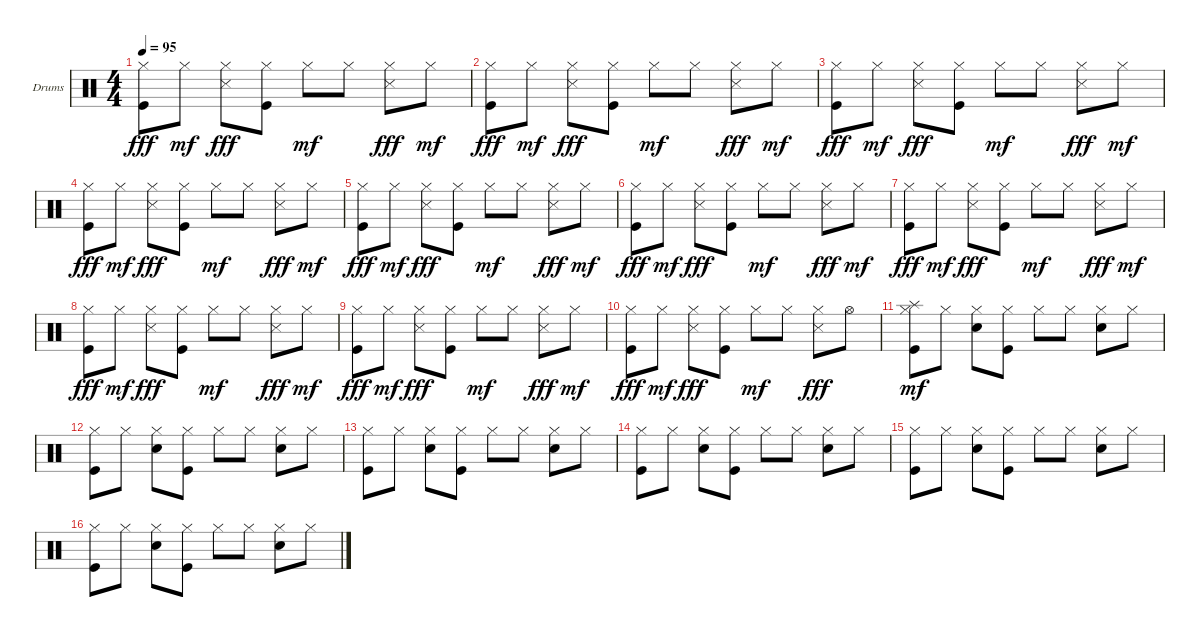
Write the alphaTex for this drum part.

\bracketExtendMode groupsimilarinstruments
\firstSystemTrackNameOrientation horizontal
\otherSystemsTrackNameOrientation horizontal
\track ("Drumkit" "Drums") {instrument percussion}
\staff {score}
\articulation defaults
\ts (4 4)
\tempo 95
\clef neutral
\ks c
("Kick (hit)" "Hi-Hat (closed)").8{dy fff} "Hi-Hat (closed)".8{dy mf} ("Snare (side stick) 3" "Hi-Hat (closed)").8{dy fff} ("Kick (hit)" "Hi-Hat (closed)").8 "Hi-Hat (closed)".8{dy mf} "Hi-Hat (closed)".8 ("Snare (side stick) 3" "Hi-Hat (closed)").8{dy fff} "Hi-Hat (closed)".8{dy mf} |
("Kick (hit)" "Hi-Hat (closed)").8{dy fff} "Hi-Hat (closed)".8{dy mf} ("Snare (side stick) 3" "Hi-Hat (closed)").8{dy fff} ("Kick (hit)" "Hi-Hat (closed)").8 "Hi-Hat (closed)".8{dy mf} "Hi-Hat (closed)".8 ("Snare (side stick) 3" "Hi-Hat (closed)").8{dy fff} "Hi-Hat (closed)".8{dy mf} |
("Kick (hit)" "Hi-Hat (closed)").8{dy fff} "Hi-Hat (closed)".8{dy mf} ("Snare (side stick) 3" "Hi-Hat (closed)").8{dy fff} ("Kick (hit)" "Hi-Hat (closed)").8 "Hi-Hat (closed)".8{dy mf} "Hi-Hat (closed)".8 ("Snare (side stick) 3" "Hi-Hat (closed)").8{dy fff} "Hi-Hat (closed)".8{dy mf} |
("Kick (hit)" "Hi-Hat (closed)").8{dy fff} "Hi-Hat (closed)".8{dy mf} ("Snare (side stick) 3" "Hi-Hat (closed)").8{dy fff} ("Kick (hit)" "Hi-Hat (closed)").8 "Hi-Hat (closed)".8{dy mf} "Hi-Hat (closed)".8 ("Snare (side stick) 3" "Hi-Hat (closed)").8{dy fff} "Hi-Hat (closed)".8{dy mf} |
("Kick (hit)" "Hi-Hat (closed)").8{dy fff} "Hi-Hat (closed)".8{dy mf} ("Snare (side stick) 3" "Hi-Hat (closed)").8{dy fff} ("Kick (hit)" "Hi-Hat (closed)").8 "Hi-Hat (closed)".8{dy mf} "Hi-Hat (closed)".8 ("Snare (side stick) 3" "Hi-Hat (closed)").8{dy fff} "Hi-Hat (closed)".8{dy mf} |
("Kick (hit)" "Hi-Hat (closed)").8{dy fff} "Hi-Hat (closed)".8{dy mf} ("Snare (side stick) 3" "Hi-Hat (closed)").8{dy fff} ("Kick (hit)" "Hi-Hat (closed)").8 "Hi-Hat (closed)".8{dy mf} "Hi-Hat (closed)".8 ("Snare (side stick) 3" "Hi-Hat (closed)").8{dy fff} "Hi-Hat (closed)".8{dy mf} |
("Kick (hit)" "Hi-Hat (closed)").8{dy fff} "Hi-Hat (closed)".8{dy mf} ("Snare (side stick) 3" "Hi-Hat (closed)").8{dy fff} ("Kick (hit)" "Hi-Hat (closed)").8 "Hi-Hat (closed)".8{dy mf} "Hi-Hat (closed)".8 ("Snare (side stick) 3" "Hi-Hat (closed)").8{dy fff} "Hi-Hat (closed)".8{dy mf} |
("Kick (hit)" "Hi-Hat (closed)").8{dy fff} "Hi-Hat (closed)".8{dy mf} ("Snare (side stick) 3" "Hi-Hat (closed)").8{dy fff} ("Kick (hit)" "Hi-Hat (closed)").8 "Hi-Hat (closed)".8{dy mf} "Hi-Hat (closed)".8 ("Snare (side stick) 3" "Hi-Hat (closed)").8{dy fff} "Hi-Hat (closed)".8{dy mf} |
("Kick (hit)" "Hi-Hat (closed)").8{dy fff} "Hi-Hat (closed)".8{dy mf} ("Snare (side stick) 3" "Hi-Hat (closed)").8{dy fff} ("Kick (hit)" "Hi-Hat (closed)").8 "Hi-Hat (closed)".8{dy mf} "Hi-Hat (closed)".8 ("Snare (side stick) 3" "Hi-Hat (closed)").8{dy fff} "Hi-Hat (closed)".8{dy mf} |
("Kick (hit)" "Hi-Hat (closed)").8{dy fff} "Hi-Hat (closed)".8{dy mf} ("Snare (side stick) 3" "Hi-Hat (closed)").8{dy fff} ("Kick (hit)" "Hi-Hat (closed)").8 "Hi-Hat (closed)".8{dy mf} "Hi-Hat (closed)".8 ("Snare (side stick) 3" "Hi-Hat (closed)").8{dy fff} "Hi-Hat (open)".8 |
("Hi-Hat (closed)" "Kick (hit)" "Splash (hit)").8{dy mf} "Hi-Hat (closed)".8 ("Hi-Hat (closed)" "Snare (hit) 2").8 ("Hi-Hat (closed)" "Kick (hit)").8 "Hi-Hat (closed)".8 "Hi-Hat (closed)".8 ("Hi-Hat (closed)" "Snare (hit) 2").8 "Hi-Hat (closed)".8 |
("Hi-Hat (closed)" "Kick (hit)").8 "Hi-Hat (closed)".8 ("Hi-Hat (closed)" "Snare (hit) 2").8 ("Hi-Hat (closed)" "Kick (hit)").8 "Hi-Hat (closed)".8 "Hi-Hat (closed)".8 ("Hi-Hat (closed)" "Snare (hit) 2").8 "Hi-Hat (closed)".8 |
("Hi-Hat (closed)" "Kick (hit)").8 "Hi-Hat (closed)".8 ("Hi-Hat (closed)" "Snare (hit) 2").8 ("Hi-Hat (closed)" "Kick (hit)").8 "Hi-Hat (closed)".8 "Hi-Hat (closed)".8 ("Hi-Hat (closed)" "Snare (hit) 2").8 "Hi-Hat (closed)".8 |
("Hi-Hat (closed)" "Kick (hit)").8 "Hi-Hat (closed)".8 ("Hi-Hat (closed)" "Snare (hit) 2").8 ("Hi-Hat (closed)" "Kick (hit)").8 "Hi-Hat (closed)".8 "Hi-Hat (closed)".8 ("Hi-Hat (closed)" "Snare (hit) 2").8 "Hi-Hat (closed)".8 |
("Hi-Hat (closed)" "Kick (hit)").8 "Hi-Hat (closed)".8 ("Hi-Hat (closed)" "Snare (hit) 2").8 ("Hi-Hat (closed)" "Kick (hit)").8 "Hi-Hat (closed)".8 "Hi-Hat (closed)".8 ("Hi-Hat (closed)" "Snare (hit) 2").8 "Hi-Hat (closed)".8 |
("Hi-Hat (closed)" "Kick (hit)").8 "Hi-Hat (closed)".8 ("Hi-Hat (closed)" "Snare (hit) 2").8 ("Hi-Hat (closed)" "Kick (hit)").8 "Hi-Hat (closed)".8 "Hi-Hat (closed)".8 ("Hi-Hat (closed)" "Snare (hit) 2").8 "Hi-Hat (closed)".8
